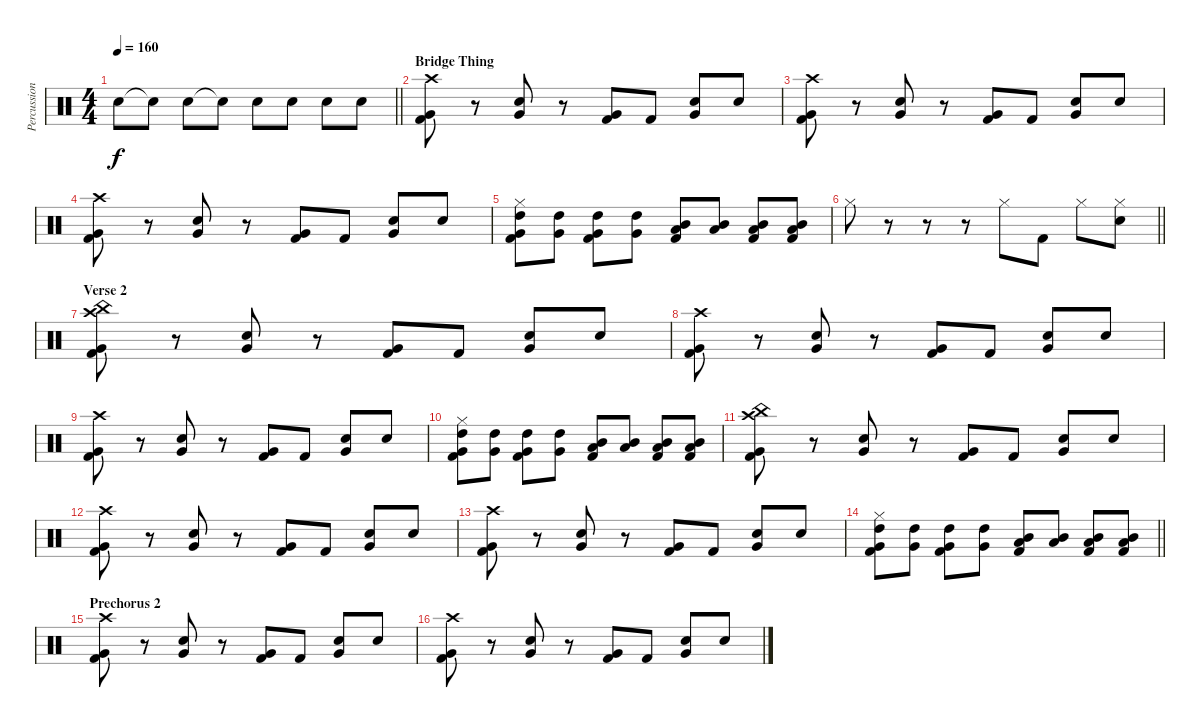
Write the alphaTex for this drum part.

\track ("Percussion" "Percussion") {instrument percussion}
\staff {score}
\articulation defaults
\ts (4 4)
\tempo 160
\clef neutral
\barLineRight lightlight
\ks c "Snare (hit) 2".8{dy f} "Snare (hit)"{t}.8 "Snare (hit) 2".8 "Snare (hit)"{t}.8 "Snare (hit) 2".8 "Snare (hit) 2".8 "Snare (hit) 2".8 "Snare (hit) 2".8
|
\section ("" "Bridge Thing")
("Crash high (hit)" "Very Low Tom (hit)" "Kick (hit) 2").8 r.8 ("Snare (hit) 2" "Very Low Tom (hit)").8 r.8 ("Very Low Tom (hit)" "Kick (hit) 2").8 "Kick (hit) 2".8 ("Snare (hit) 2" "Very Low Tom (hit)").8 "Snare (hit) 2".8 |
("Crash high (hit)" "Very Low Tom (hit)" "Kick (hit) 2").8 r.8 ("Snare (hit) 2" "Very Low Tom (hit)").8 r.8 ("Very Low Tom (hit)" "Kick (hit) 2").8 "Kick (hit) 2".8 ("Snare (hit) 2" "Very Low Tom (hit)").8 "Snare (hit) 2".8 |
("Crash high (hit)" "Very Low Tom (hit)" "Kick (hit) 2").8 r.8 ("Snare (hit) 2" "Very Low Tom (hit)").8 r.8 ("Very Low Tom (hit)" "Kick (hit) 2").8 "Kick (hit) 2".8 ("Snare (hit) 2" "Very Low Tom (hit)").8 "Snare (hit) 2".8 |
("Hi-Hat (closed)" "High Tom (hit)" "Very Low Tom (hit)" "Kick (hit) 2").8 ("High Tom (hit)" "Very Low Tom (hit)").8 ("High Tom (hit)" "Very Low Tom (hit)" "Kick (hit) 2").8 ("High Tom (hit)" "Very Low Tom (hit)").8 ("Mid Tom (hit)" "Low Floor Tom (hit)" "Kick (hit) 2").8 ("Mid Tom (hit)" "Low Floor Tom (hit)").8 ("Mid Tom (hit)" "Low Floor Tom (hit)" "Kick (hit) 2").8 ("Mid Tom (hit)" "Low Floor Tom (hit)" "Kick (hit) 2").8 |
\barLineRight lightlight "Hi-Hat (closed)".8
r.8 r.8 r.8 "Hi-Hat (closed)".8 "Kick (hit) 2".8 "Hi-Hat (closed)".8 ("Hi-Hat (closed)" "Snare (hit) 2").8 |
\section ("" "Verse 2")
("Crash high (hit)" "China (hit)" "Very Low Tom (hit)" "Kick (hit) 2").8 r.8 ("Snare (hit) 2" "Very Low Tom (hit)").8 r.8 ("Very Low Tom (hit)" "Kick (hit) 2").8 "Kick (hit) 2".8 ("Snare (hit) 2" "Very Low Tom (hit)").8 "Snare (hit) 2".8 |
("Crash high (hit)" "Very Low Tom (hit)" "Kick (hit) 2").8 r.8 ("Snare (hit) 2" "Very Low Tom (hit)").8 r.8 ("Very Low Tom (hit)" "Kick (hit) 2").8 "Kick (hit) 2".8 ("Snare (hit) 2" "Very Low Tom (hit)").8 "Snare (hit) 2".8 |
("Crash high (hit)" "Very Low Tom (hit)" "Kick (hit) 2").8 r.8 ("Snare (hit) 2" "Very Low Tom (hit)").8 r.8 ("Very Low Tom (hit)" "Kick (hit) 2").8 "Kick (hit) 2".8 ("Snare (hit) 2" "Very Low Tom (hit)").8 "Snare (hit) 2".8 |
("Hi-Hat (closed)" "High Tom (hit)" "Very Low Tom (hit)" "Kick (hit) 2").8 ("High Tom (hit)" "Very Low Tom (hit)").8 ("High Tom (hit)" "Very Low Tom (hit)" "Kick (hit) 2").8 ("High Tom (hit)" "Very Low Tom (hit)").8 ("Mid Tom (hit)" "Low Floor Tom (hit)" "Kick (hit) 2").8 ("Mid Tom (hit)" "Low Floor Tom (hit)").8 ("Mid Tom (hit)" "Low Floor Tom (hit)" "Kick (hit) 2").8 ("Mid Tom (hit)" "Low Floor Tom (hit)" "Kick (hit) 2").8 |
("Crash high (hit)" "China (hit)" "Very Low Tom (hit)" "Kick (hit) 2").8 r.8 ("Snare (hit) 2" "Very Low Tom (hit)").8 r.8 ("Very Low Tom (hit)" "Kick (hit) 2").8 "Kick (hit) 2".8 ("Snare (hit) 2" "Very Low Tom (hit)").8 "Snare (hit) 2".8 |
("Crash high (hit)" "Very Low Tom (hit)" "Kick (hit) 2").8 r.8 ("Snare (hit) 2" "Very Low Tom (hit)").8 r.8 ("Very Low Tom (hit)" "Kick (hit) 2").8 "Kick (hit) 2".8 ("Snare (hit) 2" "Very Low Tom (hit)").8 "Snare (hit) 2".8 |
("Crash high (hit)" "Very Low Tom (hit)" "Kick (hit) 2").8 r.8 ("Snare (hit) 2" "Very Low Tom (hit)").8 r.8 ("Very Low Tom (hit)" "Kick (hit) 2").8 "Kick (hit) 2".8 ("Snare (hit) 2" "Very Low Tom (hit)").8 "Snare (hit) 2".8 |
\barLineRight lightlight
("Hi-Hat (closed)" "High Tom (hit)" "Very Low Tom (hit)" "Kick (hit) 2").8 ("High Tom (hit)" "Very Low Tom (hit)").8 ("High Tom (hit)" "Very Low Tom (hit)" "Kick (hit) 2").8 ("High Tom (hit)" "Very Low Tom (hit)").8 ("Mid Tom (hit)" "Low Floor Tom (hit)" "Kick (hit) 2").8 ("Mid Tom (hit)" "Low Floor Tom (hit)").8 ("Mid Tom (hit)" "Low Floor Tom (hit)" "Kick (hit) 2").8 ("Mid Tom (hit)" "Low Floor Tom (hit)" "Kick (hit) 2").8 |
\section ("" "Prechorus 2")
("Crash high (hit)" "Very Low Tom (hit)" "Kick (hit) 2").8 r.8 ("Snare (hit) 2" "Very Low Tom (hit)").8 r.8 ("Very Low Tom (hit)" "Kick (hit) 2").8 "Kick (hit) 2".8 ("Snare (hit) 2" "Very Low Tom (hit)").8 "Snare (hit) 2".8 |
("Crash high (hit)" "Very Low Tom (hit)" "Kick (hit) 2").8 r.8 ("Snare (hit) 2" "Very Low Tom (hit)").8 r.8 ("Very Low Tom (hit)" "Kick (hit) 2").8 "Kick (hit) 2".8 ("Snare (hit) 2" "Very Low Tom (hit)").8 "Snare (hit) 2".8
